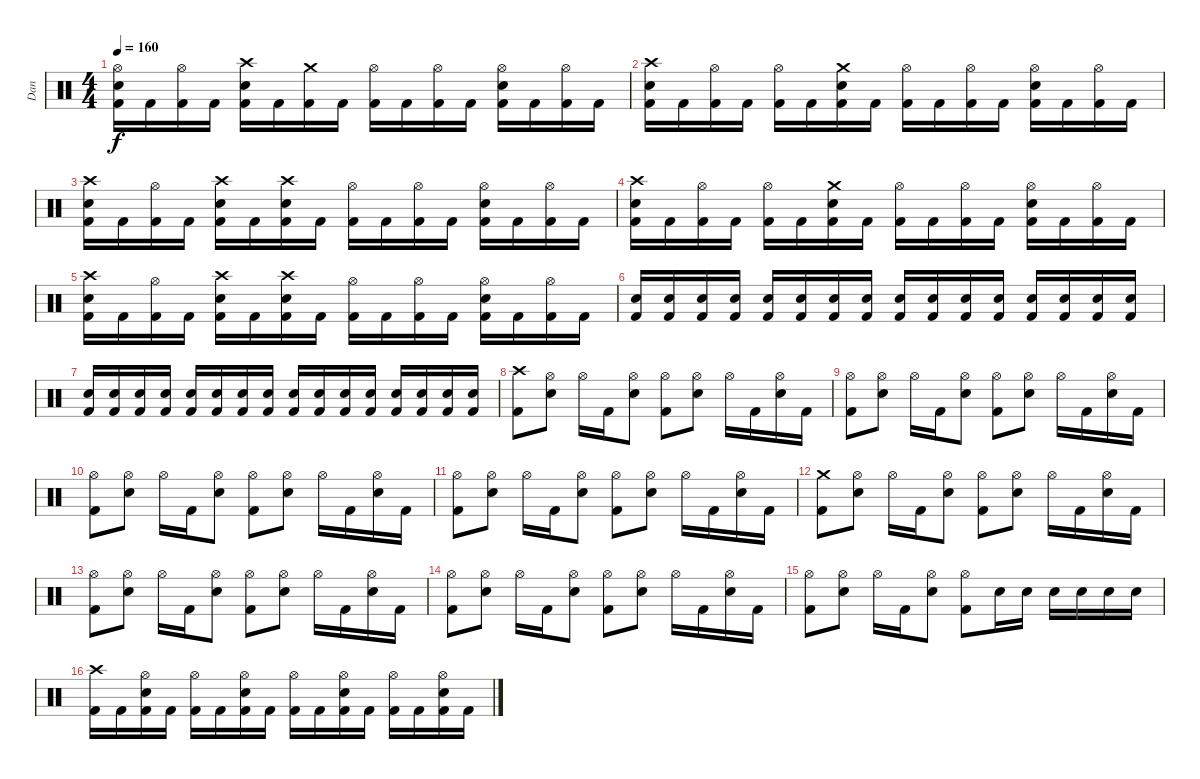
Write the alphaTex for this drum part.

\track ("Dan " "Dan ") {instrument percussion}
\staff {score}
\articulation defaults
\ts (4 4)
\tempo 160
\clef neutral
\ks c
("Metronome (bell)" "Kick (hit) 2" "Hi-Hat (open)").16{dy f} "Kick (hit) 2".16 ("Kick (hit) 2" "Hi-Hat (open)").16 "Kick (hit) 2".16 ("Metronome (bell)" "Kick (hit) 2" "Crash high (hit)").16 "Kick (hit) 2".16 ("Kick (hit) 2" "Crash medium (hit)").16 "Kick (hit) 2".16 ("Kick (hit) 2" "Hi-Hat (open)").16 "Kick (hit) 2".16 ("Kick (hit) 2" "Hi-Hat (open)").16 "Kick (hit) 2".16 ("Metronome (bell)" "Kick (hit) 2" "Hi-Hat (open)").16 "Kick (hit) 2".16 ("Kick (hit) 2" "Hi-Hat (open)").16 "Kick (hit) 2".16 |
("Metronome (bell)" "Kick (hit) 2" "Crash high (hit)").16 "Kick (hit) 2".16 ("Kick (hit) 2" "Hi-Hat (open)").16 "Kick (hit) 2".16 ("Kick (hit) 2" "Hi-Hat (open)").16 "Kick (hit) 2".16 ("Metronome (bell)" "Kick (hit) 2" "Crash medium (hit)").16 "Kick (hit) 2".16 ("Kick (hit) 2" "Hi-Hat (open)").16 "Kick (hit) 2".16 ("Kick (hit) 2" "Hi-Hat (open)").16 "Kick (hit) 2".16 ("Metronome (bell)" "Kick (hit) 2" "Hi-Hat (open)").16 "Kick (hit) 2".16 ("Kick (hit) 2" "Hi-Hat (open)").16 "Kick (hit) 2".16 |
("Metronome (bell)" "Kick (hit) 2" "Crash high (hit)").16 "Kick (hit) 2".16 ("Kick (hit) 2" "Hi-Hat (open)").16 "Kick (hit) 2".16 ("Metronome (bell)" "Kick (hit) 2" "Crash high (hit)").16 "Kick (hit) 2".16 ("Metronome (bell)" "Kick (hit) 2" "Crash high (hit)").16 "Kick (hit) 2".16 ("Kick (hit) 2" "Hi-Hat (open)").16 "Kick (hit) 2".16 ("Kick (hit) 2" "Hi-Hat (open)").16 "Kick (hit) 2".16 ("Metronome (bell)" "Kick (hit) 2" "Hi-Hat (open)").16 "Kick (hit) 2".16 ("Kick (hit) 2" "Hi-Hat (open)").16 "Kick (hit) 2".16 |
("Metronome (bell)" "Kick (hit) 2" "Crash high (hit)").16 "Kick (hit) 2".16 ("Kick (hit) 2" "Hi-Hat (open)").16 "Kick (hit) 2".16 ("Kick (hit) 2" "Hi-Hat (open)").16 "Kick (hit) 2".16 ("Metronome (bell)" "Kick (hit) 2" "Crash medium (hit)").16 "Kick (hit) 2".16 ("Kick (hit) 2" "Hi-Hat (open)").16 "Kick (hit) 2".16 ("Kick (hit) 2" "Hi-Hat (open)").16 "Kick (hit) 2".16 ("Metronome (bell)" "Kick (hit) 2" "Hi-Hat (open)").16 "Kick (hit) 2".16 ("Kick (hit) 2" "Hi-Hat (open)").16 "Kick (hit) 2".16 |
("Metronome (bell)" "Kick (hit) 2" "Crash high (hit)").16 "Kick (hit) 2".16 ("Kick (hit) 2" "Hi-Hat (open)").16 "Kick (hit) 2".16 ("Metronome (bell)" "Kick (hit) 2" "Crash high (hit)").16 "Kick (hit) 2".16 ("Metronome (bell)" "Kick (hit) 2" "Crash high (hit)").16 "Kick (hit) 2".16 ("Kick (hit) 2" "Hi-Hat (open)").16 "Kick (hit) 2".16 ("Kick (hit) 2" "Hi-Hat (open)").16 "Kick (hit) 2".16 ("Metronome (bell)" "Kick (hit) 2" "Hi-Hat (open)").16 "Kick (hit) 2".16 ("Kick (hit) 2" "Hi-Hat (open)").16 "Kick (hit) 2".16 |
("Metronome (bell)" "Kick (hit) 2").16 ("Metronome (bell)" "Kick (hit) 2").16 ("Metronome (bell)" "Kick (hit) 2").16 ("Metronome (bell)" "Kick (hit) 2").16 ("Metronome (bell)" "Kick (hit) 2").16 ("Metronome (bell)" "Kick (hit) 2").16 ("Metronome (bell)" "Kick (hit) 2").16 ("Metronome (bell)" "Kick (hit) 2").16 ("Metronome (bell)" "Kick (hit) 2").16 ("Metronome (bell)" "Kick (hit) 2").16 ("Metronome (bell)" "Kick (hit) 2").16 ("Metronome (bell)" "Kick (hit) 2").16 ("Metronome (bell)" "Kick (hit) 2").16 ("Metronome (bell)" "Kick (hit) 2").16 ("Metronome (bell)" "Kick (hit) 2").16 ("Metronome (bell)" "Kick (hit) 2").16 |
("Metronome (bell)" "Kick (hit) 2").16 ("Metronome (bell)" "Kick (hit) 2").16 ("Metronome (bell)" "Kick (hit) 2").16 ("Metronome (bell)" "Kick (hit) 2").16 ("Metronome (bell)" "Kick (hit) 2").16 ("Metronome (bell)" "Kick (hit) 2").16 ("Metronome (bell)" "Kick (hit) 2").16 ("Metronome (bell)" "Kick (hit) 2").16 ("Metronome (bell)" "Kick (hit) 2").16 ("Metronome (bell)" "Kick (hit) 2").16 ("Metronome (bell)" "Kick (hit) 2").16 ("Metronome (bell)" "Kick (hit) 2").16 ("Metronome (bell)" "Kick (hit) 2").16 ("Metronome (bell)" "Kick (hit) 2").16 ("Metronome (bell)" "Kick (hit) 2").16 ("Metronome (bell)" "Kick (hit) 2").16 |
("Kick (hit) 2" "Crash high (hit)").8 ("Metronome (bell)" "Hi-Hat (open)").8 "Hi-Hat (open)".16 "Kick (hit) 2".16 ("Metronome (bell)" "Hi-Hat (open)").8 ("Kick (hit) 2" "Hi-Hat (open)").8 ("Metronome (bell)" "Hi-Hat (open)").8 "Hi-Hat (open)".16 "Kick (hit) 2".16 ("Metronome (bell)" "Hi-Hat (open)").16 "Kick (hit) 2".16 |
("Kick (hit) 2" "Hi-Hat (open)").8 ("Metronome (bell)" "Hi-Hat (open)").8 "Hi-Hat (open)".16 "Kick (hit) 2".16 ("Metronome (bell)" "Hi-Hat (open)").8 ("Kick (hit) 2" "Hi-Hat (open)").8 ("Metronome (bell)" "Hi-Hat (open)").8 "Hi-Hat (open)".16 "Kick (hit) 2".16 ("Metronome (bell)" "Hi-Hat (open)").16 "Kick (hit) 2".16 |
("Kick (hit) 2" "Hi-Hat (open)").8 ("Metronome (bell)" "Hi-Hat (open)").8 "Hi-Hat (open)".16 "Kick (hit) 2".16 ("Metronome (bell)" "Hi-Hat (open)").8 ("Kick (hit) 2" "Hi-Hat (open)").8 ("Metronome (bell)" "Hi-Hat (open)").8 "Hi-Hat (open)".16 "Kick (hit) 2".16 ("Metronome (bell)" "Hi-Hat (open)").16 "Kick (hit) 2".16 |
("Kick (hit) 2" "Hi-Hat (open)").8 ("Metronome (bell)" "Hi-Hat (open)").8 "Hi-Hat (open)".16 "Kick (hit) 2".16 ("Metronome (bell)" "Hi-Hat (open)").8 ("Kick (hit) 2" "Hi-Hat (open)").8 ("Metronome (bell)" "Hi-Hat (open)").8 "Hi-Hat (open)".16 "Kick (hit) 2".16 ("Metronome (bell)" "Hi-Hat (open)").16 "Kick (hit) 2".16 |
("Kick (hit) 2" "Crash medium (hit)").8 ("Metronome (bell)" "Hi-Hat (open)").8 "Hi-Hat (open)".16 "Kick (hit) 2".16 ("Metronome (bell)" "Hi-Hat (open)").8 ("Kick (hit) 2" "Hi-Hat (open)").8 ("Metronome (bell)" "Hi-Hat (open)").8 "Hi-Hat (open)".16 "Kick (hit) 2".16 ("Metronome (bell)" "Hi-Hat (open)").16 "Kick (hit) 2".16 |
("Kick (hit) 2" "Hi-Hat (open)").8 ("Metronome (bell)" "Hi-Hat (open)").8 "Hi-Hat (open)".16 "Kick (hit) 2".16 ("Metronome (bell)" "Hi-Hat (open)").8 ("Kick (hit) 2" "Hi-Hat (open)").8 ("Metronome (bell)" "Hi-Hat (open)").8 "Hi-Hat (open)".16 "Kick (hit) 2".16 ("Metronome (bell)" "Hi-Hat (open)").16 "Kick (hit) 2".16 |
("Kick (hit) 2" "Hi-Hat (open)").8 ("Metronome (bell)" "Hi-Hat (open)").8 "Hi-Hat (open)".16 "Kick (hit) 2".16 ("Metronome (bell)" "Hi-Hat (open)").8 ("Kick (hit) 2" "Hi-Hat (open)").8 ("Metronome (bell)" "Hi-Hat (open)").8 "Hi-Hat (open)".16 "Kick (hit) 2".16 ("Metronome (bell)" "Hi-Hat (open)").16 "Kick (hit) 2".16 |
("Kick (hit) 2" "Hi-Hat (open)").8 ("Metronome (bell)" "Hi-Hat (open)").8 "Hi-Hat (open)".16 "Kick (hit) 2".16 ("Metronome (bell)" "Hi-Hat (open)").8 ("Kick (hit) 2" "Hi-Hat (open)").8 "Metronome (bell)".16 "Metronome (bell)".16 "Metronome (bell)".16 "Metronome (bell)".16 "Metronome (bell)".16 "Metronome (bell)".16 |
("Kick (hit) 2" "Crash high (hit)").16 "Kick (hit) 2".16 ("Metronome (bell)" "Kick (hit) 2" "Hi-Hat (open)").16 "Kick (hit) 2".16 ("Kick (hit) 2" "Hi-Hat (open)").16 "Kick (hit) 2".16 ("Metronome (bell)" "Kick (hit) 2" "Hi-Hat (open)").16 "Kick (hit) 2".16 ("Kick (hit) 2" "Hi-Hat (open)").16 "Kick (hit) 2".16 ("Metronome (bell)" "Kick (hit) 2" "Hi-Hat (open)").16 "Kick (hit) 2".16 ("Kick (hit) 2" "Hi-Hat (open)").16 "Kick (hit) 2".16 ("Metronome (bell)" "Kick (hit) 2" "Hi-Hat (open)").16 "Kick (hit) 2".16
